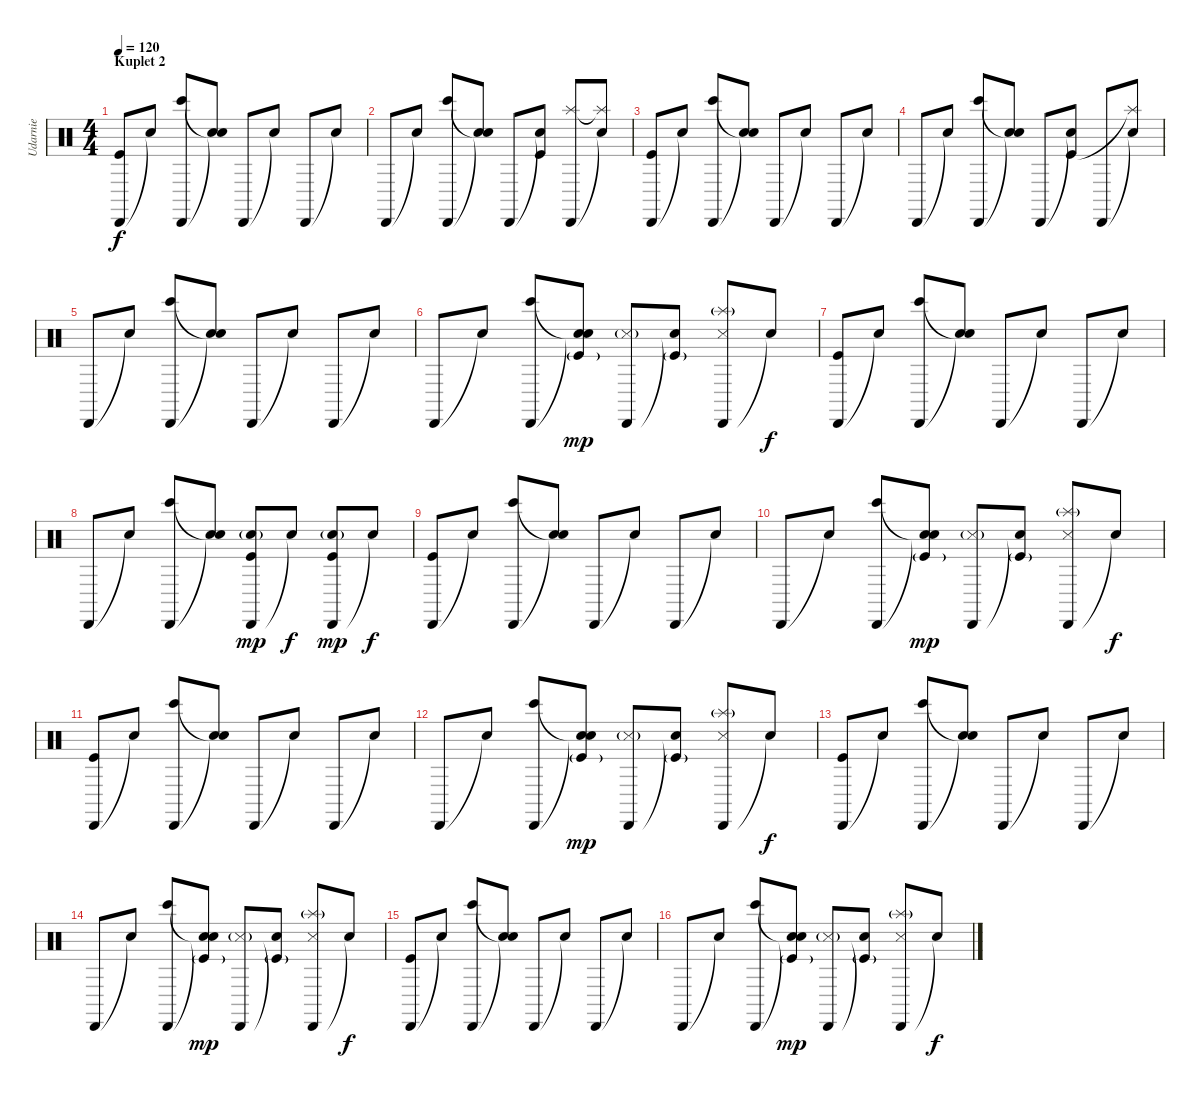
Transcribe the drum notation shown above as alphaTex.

\track ("Udarnie" "Udarnie") {instrument percussion}
\staff {score}
\articulation defaults
\ts (4 4)
\section ("" "Kuplet 2")
\tempo 120
\clef neutral
\ks c
("Cabasa (hit)" "Kick (hit)").8{dy f} "Snare (hit)"{t}.8 ("Cabasa (hit)" "Bongo High (hit)").8 ("Snare (hit)"{t} "Snare (hit)"{t}).8 "Cabasa (hit)".8 "Snare (hit)"{t}.8 "Cabasa (hit)".8 "Snare (hit)"{t}.8 |
"Cabasa (hit)".8 "Snare (hit)"{t}.8 ("Cabasa (hit)" "Bongo High (hit)").8 ("Snare (hit)"{t} "Snare (hit)"{t}).8 "Cabasa (hit)".8 ("Snare (hit)"{t} "Kick (hit)").8 ("Cabasa (hit)" "Splash (hit)").8 ("Snare (hit)"{t} "Splash (hit)"{t}).8 |
("Cabasa (hit)" "Kick (hit)").8 "Snare (hit)"{t}.8 ("Cabasa (hit)" "Bongo High (hit)").8 ("Snare (hit)"{t} "Snare (hit)"{t}).8 "Cabasa (hit)".8 "Snare (hit)"{t}.8 "Cabasa (hit)".8 "Snare (hit)"{t}.8 |
"Cabasa (hit)".8 "Snare (hit)"{t}.8 ("Cabasa (hit)" "Bongo High (hit)").8 ("Snare (hit)"{t} "Snare (hit)"{t}).8 "Cabasa (hit)".8 ("Snare (hit)"{t} "Kick (hit)").8 "Cabasa (hit)".8 ("Snare (hit)"{t} "Splash (hit)"{t}).8 |
"Cabasa (hit)".8 "Snare (hit)"{t}.8 ("Cabasa (hit)" "Bongo High (hit)").8 ("Snare (hit)"{t} "Snare (hit)"{t}).8 "Cabasa (hit)".8 "Snare (hit)"{t}.8 "Cabasa (hit)".8 "Snare (hit)"{t}.8 |
"Cabasa (hit)".8 "Snare (hit)"{t}.8 ("Cabasa (hit)" "Bongo High (hit)").8 ("Snare (hit)"{t} "Snare (hit)"{t} "Kick (hit)"{g}).8{dy mp} ("Cabasa (hit)" "Snare (side stick) 3"{g}).8 ("Snare (hit)"{t} "Kick (hit)"{g}).8 ("Cabasa (hit)" "Snare (side stick) 3" "Splash (hit)"{g}).8 "Snare (hit)"{t}.8{dy f} |
("Cabasa (hit)" "Kick (hit)").8 "Snare (hit)"{t}.8 ("Cabasa (hit)" "Bongo High (hit)").8 ("Snare (hit)"{t} "Snare (hit)"{t}).8 "Cabasa (hit)".8 "Snare (hit)"{t}.8 "Cabasa (hit)".8 "Snare (hit)"{t}.8 |
"Cabasa (hit)".8 "Snare (hit)"{t}.8 ("Cabasa (hit)" "Bongo High (hit)").8 ("Snare (hit)"{t} "Snare (hit)"{t}).8 ("Cabasa (hit)" "Electric Snare (hit)"{g} "Kick (hit)").8{dy mp} "Snare (hit)"{t}.8{dy f} ("Cabasa (hit)" "Electric Snare (hit)"{g} "Kick (hit)").8{dy mp} "Snare (hit)"{t}.8{dy f} |
("Cabasa (hit)" "Kick (hit)").8 "Snare (hit)"{t}.8 ("Cabasa (hit)" "Bongo High (hit)").8 ("Snare (hit)"{t} "Snare (hit)"{t}).8 "Cabasa (hit)".8 "Snare (hit)"{t}.8 "Cabasa (hit)".8 "Snare (hit)"{t}.8 |
"Cabasa (hit)".8 "Snare (hit)"{t}.8 ("Cabasa (hit)" "Bongo High (hit)").8 ("Snare (hit)"{t} "Snare (hit)"{t} "Kick (hit)"{g}).8{dy mp} ("Cabasa (hit)" "Snare (side stick) 3"{g}).8 ("Snare (hit)"{t} "Kick (hit)"{g}).8 ("Cabasa (hit)" "Snare (side stick) 3" "Splash (hit)"{g}).8 "Snare (hit)"{t}.8{dy f} |
("Cabasa (hit)" "Kick (hit)").8 "Snare (hit)"{t}.8 ("Cabasa (hit)" "Bongo High (hit)").8 ("Snare (hit)"{t} "Snare (hit)"{t}).8 "Cabasa (hit)".8 "Snare (hit)"{t}.8 "Cabasa (hit)".8 "Snare (hit)"{t}.8 |
"Cabasa (hit)".8 "Snare (hit)"{t}.8 ("Cabasa (hit)" "Bongo High (hit)").8 ("Snare (hit)"{t} "Snare (hit)"{t} "Kick (hit)"{g}).8{dy mp} ("Cabasa (hit)" "Snare (side stick) 3"{g}).8 ("Snare (hit)"{t} "Kick (hit)"{g}).8 ("Cabasa (hit)" "Snare (side stick) 3" "Splash (hit)"{g}).8 "Snare (hit)"{t}.8{dy f} |
("Cabasa (hit)" "Kick (hit)").8 "Snare (hit)"{t}.8 ("Cabasa (hit)" "Bongo High (hit)").8 ("Snare (hit)"{t} "Snare (hit)"{t}).8 "Cabasa (hit)".8 "Snare (hit)"{t}.8 "Cabasa (hit)".8 "Snare (hit)"{t}.8 |
"Cabasa (hit)".8 "Snare (hit)"{t}.8 ("Cabasa (hit)" "Bongo High (hit)").8 ("Snare (hit)"{t} "Snare (hit)"{t} "Kick (hit)"{g}).8{dy mp} ("Cabasa (hit)" "Snare (side stick) 3"{g}).8 ("Snare (hit)"{t} "Kick (hit)"{g}).8 ("Cabasa (hit)" "Snare (side stick) 3" "Splash (hit)"{g}).8 "Snare (hit)"{t}.8{dy f} |
("Cabasa (hit)" "Kick (hit)").8 "Snare (hit)"{t}.8 ("Cabasa (hit)" "Bongo High (hit)").8 ("Snare (hit)"{t} "Snare (hit)"{t}).8 "Cabasa (hit)".8 "Snare (hit)"{t}.8 "Cabasa (hit)".8 "Snare (hit)"{t}.8 |
"Cabasa (hit)".8 "Snare (hit)"{t}.8 ("Cabasa (hit)" "Bongo High (hit)").8 ("Snare (hit)"{t} "Snare (hit)"{t} "Kick (hit)"{g}).8{dy mp} ("Cabasa (hit)" "Snare (side stick) 3"{g}).8 ("Snare (hit)"{t} "Kick (hit)"{g}).8 ("Cabasa (hit)" "Snare (side stick) 3" "Splash (hit)"{g}).8 "Snare (hit)"{t}.8{dy f}
